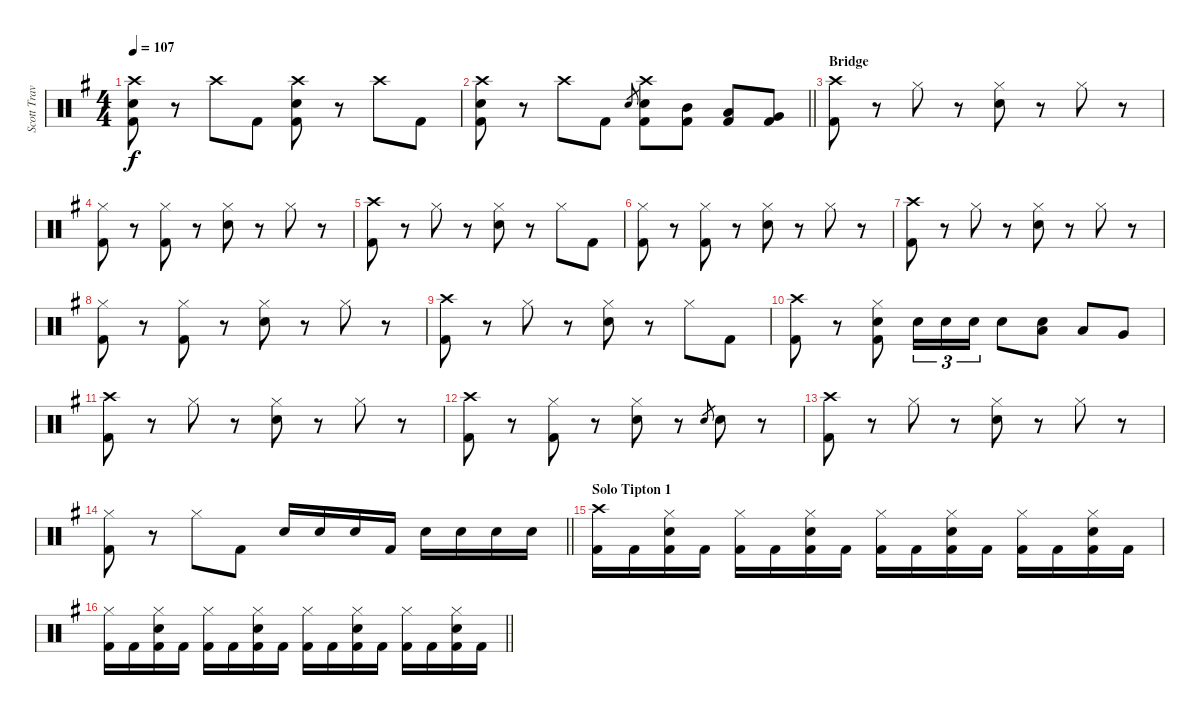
\track ("Scott Travis" "Scott Trav") {instrument percussion}
\staff {score}
\articulation defaults
\ts (4 4)
\tempo 107
\clef neutral
\ks eminor
("Crash high (hit)" "Snare (hit) 2" "Kick (hit) 2").8{dy f} r.8 "Crash high (hit)".8 "Kick (hit) 2".8 ("Crash high (hit)" "Snare (hit) 2" "Kick (hit) 2").8 r.8 "Crash high (hit)".8 "Kick (hit) 2".8 |
\barLineRight lightlight
("Crash high (hit)" "Snare (hit) 2" "Kick (hit) 2").8 r.8 "Crash high (hit)".8 "Kick (hit) 2".8 "Snare (hit) 2".8{gr} ("Crash high (hit)" "Snare (hit) 2" "Kick (hit) 2").8 ("Mid Tom (hit)" "Kick (hit) 2").8 ("Low Tom (hit)" "Kick (hit) 2").8 ("Very Low Tom (hit)" "Kick (hit) 2").8 |
\section ("" "Bridge")
("Crash high (hit)" "Kick (hit) 2").8 r.8 "Hi-Hat (closed)".8 r.8 ("Hi-Hat (closed)" "Snare (hit) 2").8 r.8 "Hi-Hat (closed)".8 r.8 |
("Hi-Hat (closed)" "Kick (hit) 2").8 r.8 ("Hi-Hat (closed)" "Kick (hit) 2").8 r.8 ("Hi-Hat (closed)" "Snare (hit) 2").8 r.8 "Hi-Hat (closed)".8 r.8 |
("Crash high (hit)" "Kick (hit) 2").8 r.8 "Hi-Hat (closed)".8 r.8 ("Hi-Hat (closed)" "Snare (hit) 2").8 r.8 "Hi-Hat (closed)".8 "Kick (hit) 2".8 |
("Hi-Hat (closed)" "Kick (hit) 2").8 r.8 ("Hi-Hat (closed)" "Kick (hit) 2").8 r.8 ("Hi-Hat (closed)" "Snare (hit) 2").8 r.8 "Hi-Hat (closed)".8 r.8 |
("Crash high (hit)" "Kick (hit) 2").8 r.8 "Hi-Hat (closed)".8 r.8 ("Hi-Hat (closed)" "Snare (hit) 2").8 r.8 "Hi-Hat (closed)".8 r.8 |
("Hi-Hat (closed)" "Kick (hit) 2").8 r.8 ("Hi-Hat (closed)" "Kick (hit) 2").8 r.8 ("Hi-Hat (closed)" "Snare (hit) 2").8 r.8 "Hi-Hat (closed)".8 r.8 |
("Crash high (hit)" "Kick (hit) 2").8 r.8 "Hi-Hat (closed)".8 r.8 ("Hi-Hat (closed)" "Snare (hit) 2").8 r.8 "Hi-Hat (closed)".8 "Kick (hit) 2".8 |
("Crash high (hit)" "Kick (hit) 2").8 r.8 ("Hi-Hat (closed)" "Snare (hit) 2" "Kick (hit) 2").8 "Snare (hit) 2".16{tu (3 2)} "Snare (hit) 2".16{tu (3 2)} "Snare (hit) 2".16{tu (3 2)} "Snare (hit) 2".8 ("Low Tom (hit)" "Snare (hit) 2").8 "Low Tom (hit)".8 "Very Low Tom (hit)".8 |
("Crash high (hit)" "Kick (hit) 2").8 r.8 "Hi-Hat (closed)".8 r.8 ("Hi-Hat (closed)" "Snare (hit) 2").8 r.8 "Hi-Hat (closed)".8 r.8 |
("Crash high (hit)" "Kick (hit) 2").8 r.8 ("Hi-Hat (closed)" "Kick (hit) 2").8 r.8 ("Hi-Hat (closed)" "Snare (hit) 2").8 r.8 "Snare (hit) 2".8{gr} "Snare (hit) 2".8 r.8 |
("Crash high (hit)" "Kick (hit) 2").8 r.8 "Hi-Hat (closed)".8 r.8 ("Hi-Hat (closed)" "Snare (hit) 2").8 r.8 "Hi-Hat (closed)".8 r.8 |
\barLineRight lightlight
("Hi-Hat (closed)" "Kick (hit) 2").8 r.8 "Hi-Hat (closed)".8 "Kick (hit) 2".8 "Snare (hit) 2".16 "Snare (hit) 2".16 "Snare (hit) 2".16 "Kick (hit) 2".16 "Snare (hit) 2".16 "Snare (hit) 2".16 "Snare (hit) 2".16 "Snare (hit) 2".16 |
\section ("" "Solo Tipton 1")
("Crash high (hit)" "Kick (hit) 2").16 "Kick (hit) 2".16 ("Hi-Hat (closed)" "Snare (hit) 2" "Kick (hit) 2").16 "Kick (hit) 2".16 ("Hi-Hat (closed)" "Kick (hit) 2").16 "Kick (hit) 2".16 ("Hi-Hat (closed)" "Snare (hit) 2" "Kick (hit) 2").16 "Kick (hit) 2".16 ("Hi-Hat (closed)" "Kick (hit) 2").16 "Kick (hit) 2".16 ("Hi-Hat (closed)" "Snare (hit) 2" "Kick (hit) 2").16 "Kick (hit) 2".16 ("Hi-Hat (closed)" "Kick (hit) 2").16 "Kick (hit) 2".16 ("Hi-Hat (closed)" "Snare (hit) 2" "Kick (hit) 2").16 "Kick (hit) 2".16 |
\barLineRight lightlight
("Hi-Hat (closed)" "Kick (hit) 2").16 "Kick (hit) 2".16 ("Hi-Hat (closed)" "Snare (hit) 2" "Kick (hit) 2").16 "Kick (hit) 2".16 ("Hi-Hat (closed)" "Kick (hit) 2").16 "Kick (hit) 2".16 ("Hi-Hat (closed)" "Snare (hit) 2" "Kick (hit) 2").16 "Kick (hit) 2".16 ("Hi-Hat (closed)" "Kick (hit) 2").16 "Kick (hit) 2".16 ("Hi-Hat (closed)" "Snare (hit) 2" "Kick (hit) 2").16 "Kick (hit) 2".16 ("Hi-Hat (closed)" "Kick (hit) 2").16 "Kick (hit) 2".16 ("Hi-Hat (closed)" "Snare (hit) 2" "Kick (hit) 2").16 "Kick (hit) 2".16
